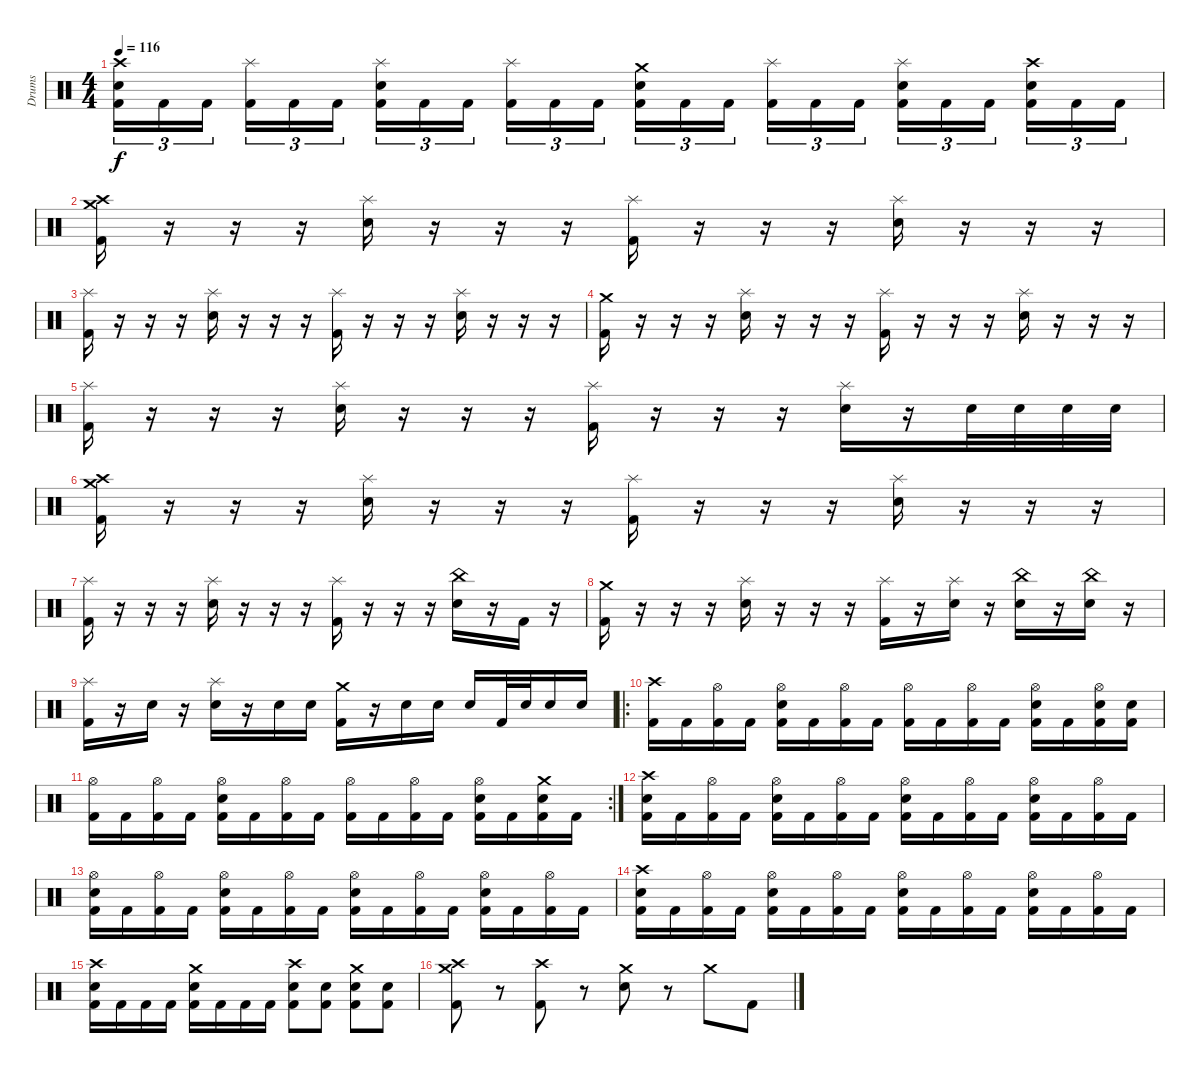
\track ("Drums" "Drums") {instrument percussion}
\staff {score}
\articulation defaults
\ts (4 4)
\tempo 116
\clef neutral
\ks c
("Crash high (hit)" "Snare (hit) 2" "Kick (hit) 2").16{tu (3 2) dy f} "Kick (hit) 2".16{tu (3 2)} "Kick (hit) 2".16{tu (3 2)} ("Splash (hit)" "Kick (hit) 2").16{tu (3 2)} "Kick (hit) 2".16{tu (3 2)} "Kick (hit) 2".16{tu (3 2)} ("Splash (hit)" "Snare (hit) 2" "Kick (hit) 2").16{tu (3 2)} "Kick (hit) 2".16{tu (3 2)} "Kick (hit) 2".16{tu (3 2)} ("Splash (hit)" "Kick (hit) 2").16{tu (3 2)} "Kick (hit) 2".16{tu (3 2)} "Kick (hit) 2".16{tu (3 2)} ("Crash medium (hit)" "Snare (hit) 2" "Kick (hit) 2").16{tu (3 2)} "Kick (hit) 2".16{tu (3 2)} "Kick (hit) 2".16{tu (3 2)} ("Splash (hit)" "Kick (hit) 2").16{tu (3 2)} "Kick (hit) 2".16{tu (3 2)} "Kick (hit) 2".16{tu (3 2)} ("Splash (hit)" "Snare (hit) 2" "Kick (hit) 2").16{tu (3 2)} "Kick (hit) 2".16{tu (3 2)} "Kick (hit) 2".16{tu (3 2)} ("Crash high (hit)" "Snare (hit) 2" "Kick (hit) 2").16{tu (3 2)} "Kick (hit) 2".16{tu (3 2)} "Kick (hit) 2".16{tu (3 2)} |
("Crash high (hit)" "Crash medium (hit)" "Kick (hit) 2").16 r.16 r.16 r.16 ("Splash (hit)" "Snare (hit) 2").16 r.16 r.16 r.16 ("Splash (hit)" "Kick (hit) 2").16 r.16 r.16 r.16 ("Splash (hit)" "Snare (hit) 2").16 r.16 r.16 r.16 |
("Splash (hit)" "Kick (hit) 2").16 r.16 r.16 r.16 ("Splash (hit)" "Snare (hit) 2").16 r.16 r.16 r.16 ("Splash (hit)" "Kick (hit) 2").16 r.16 r.16 r.16 ("Splash (hit)" "Snare (hit) 2").16 r.16 r.16 r.16 |
("Crash medium (hit)" "Kick (hit) 2").16 r.16 r.16 r.16 ("Splash (hit)" "Snare (hit) 2").16 r.16 r.16 r.16 ("Splash (hit)" "Kick (hit) 2").16 r.16 r.16 r.16 ("Splash (hit)" "Snare (hit) 2").16 r.16 r.16 r.16 |
("Splash (hit)" "Kick (hit) 2").16 r.16 r.16 r.16 ("Splash (hit)" "Snare (hit) 2").16 r.16 r.16 r.16 ("Splash (hit)" "Kick (hit) 2").16 r.16 r.16 r.16 ("Splash (hit)" "Snare (hit) 2").16 r.16 "Snare (hit) 2".32 "Snare (hit) 2".32 "Snare (hit) 2".32 "Snare (hit) 2".32 |
("Crash high (hit)" "Crash medium (hit)" "Kick (hit) 2").16 r.16 r.16 r.16 ("Splash (hit)" "Snare (hit) 2").16 r.16 r.16 r.16 ("Splash (hit)" "Kick (hit) 2").16 r.16 r.16 r.16 ("Splash (hit)" "Snare (hit) 2").16 r.16 r.16 r.16 |
("Splash (hit)" "Kick (hit) 2").16 r.16 r.16 r.16 ("Splash (hit)" "Snare (hit) 2").16 r.16 r.16 r.16 ("Splash (hit)" "Kick (hit) 2").16 r.16 r.16 r.16 ("China (hit)" "Snare (hit) 2").16 r.16 "Kick (hit) 2".16 r.16 |
("Crash medium (hit)" "Kick (hit) 2").16 r.16 r.16 r.16 ("Splash (hit)" "Snare (hit) 2").16 r.16 r.16 r.16 ("Splash (hit)" "Kick (hit) 2").16 r.16 ("Splash (hit)" "Snare (hit) 2").16 r.16 ("China (hit)" "Snare (hit) 2").16 r.16 ("China (hit)" "Snare (hit) 2").16 r.16 |
("Splash (hit)" "Kick (hit) 2").16 r.16 "Snare (hit) 2".16 r.16 ("Splash (hit)" "Snare (hit) 2").16 r.16 "Snare (hit) 2".16 "Snare (hit) 2".16 ("Crash medium (hit)" "Kick (hit) 2").16 r.16 "Snare (hit) 2".16 "Snare (hit) 2".16 "Snare (hit) 2".16 "Kick (hit) 2".32 "Snare (hit) 2".32 "Snare (hit) 2".16 "Snare (hit) 2".16 |
\ro
("Crash high (hit)" "Kick (hit) 2").16 "Kick (hit) 2".16 ("Hi-Hat (open)" "Kick (hit) 2").16 "Kick (hit) 2".16 ("Hi-Hat (open)" "Snare (hit) 2" "Kick (hit) 2").16 "Kick (hit) 2".16 ("Hi-Hat (open)" "Kick (hit) 2").16 "Kick (hit) 2".16 ("Hi-Hat (open)" "Kick (hit) 2").16 "Kick (hit) 2".16 ("Hi-Hat (open)" "Kick (hit) 2").16 "Kick (hit) 2".16 ("Hi-Hat (open)" "Snare (hit) 2" "Kick (hit) 2").16 "Kick (hit) 2".16 ("Hi-Hat (open)" "Snare (hit) 2" "Kick (hit) 2").16 ("Snare (hit) 2" "Kick (hit) 2").16 |
\rc 2
("Hi-Hat (open)" "Kick (hit) 2").16 "Kick (hit) 2".16 ("Hi-Hat (open)" "Kick (hit) 2").16 "Kick (hit) 2".16 ("Hi-Hat (open)" "Snare (hit) 2" "Kick (hit) 2").16 "Kick (hit) 2".16 ("Hi-Hat (open)" "Kick (hit) 2").16 "Kick (hit) 2".16 ("Hi-Hat (open)" "Kick (hit) 2").16 "Kick (hit) 2".16 ("Hi-Hat (open)" "Kick (hit) 2").16 "Kick (hit) 2".16 ("Hi-Hat (open)" "Snare (hit) 2" "Kick (hit) 2").16 "Kick (hit) 2".16 ("Crash medium (hit)" "Snare (hit) 2" "Kick (hit) 2").16 "Kick (hit) 2".16 |
("Crash high (hit)" "Snare (hit) 2" "Kick (hit) 2").16 "Kick (hit) 2".16 ("Hi-Hat (open)" "Kick (hit) 2").16 "Kick (hit) 2".16 ("Hi-Hat (open)" "Snare (hit) 2" "Kick (hit) 2").16 "Kick (hit) 2".16 ("Hi-Hat (open)" "Kick (hit) 2").16 "Kick (hit) 2".16 ("Hi-Hat (open)" "Snare (hit) 2" "Kick (hit) 2").16 "Kick (hit) 2".16 ("Hi-Hat (open)" "Kick (hit) 2").16 "Kick (hit) 2".16 ("Hi-Hat (open)" "Snare (hit) 2" "Kick (hit) 2").16 "Kick (hit) 2".16 ("Hi-Hat (open)" "Kick (hit) 2").16 "Kick (hit) 2".16 |
("Hi-Hat (open)" "Snare (hit) 2" "Kick (hit) 2").16 "Kick (hit) 2".16 ("Hi-Hat (open)" "Kick (hit) 2").16 "Kick (hit) 2".16 ("Hi-Hat (open)" "Snare (hit) 2" "Kick (hit) 2").16 "Kick (hit) 2".16 ("Hi-Hat (open)" "Kick (hit) 2").16 "Kick (hit) 2".16 ("Hi-Hat (open)" "Snare (hit) 2" "Kick (hit) 2").16 "Kick (hit) 2".16 ("Hi-Hat (open)" "Kick (hit) 2").16 "Kick (hit) 2".16 ("Hi-Hat (open)" "Snare (hit) 2" "Kick (hit) 2").16 "Kick (hit) 2".16 ("Hi-Hat (open)" "Kick (hit) 2").16 "Kick (hit) 2".16 |
("Crash high (hit)" "Snare (hit) 2" "Kick (hit) 2").16 "Kick (hit) 2".16 ("Hi-Hat (open)" "Kick (hit) 2").16 "Kick (hit) 2".16 ("Hi-Hat (open)" "Snare (hit) 2" "Kick (hit) 2").16 "Kick (hit) 2".16 ("Hi-Hat (open)" "Kick (hit) 2").16 "Kick (hit) 2".16 ("Hi-Hat (open)" "Snare (hit) 2" "Kick (hit) 2").16 "Kick (hit) 2".16 ("Hi-Hat (open)" "Kick (hit) 2").16 "Kick (hit) 2".16 ("Hi-Hat (open)" "Snare (hit) 2" "Kick (hit) 2").16 "Kick (hit) 2".16 ("Hi-Hat (open)" "Kick (hit) 2").16 "Kick (hit) 2".16 |
("Crash high (hit)" "Snare (hit) 2" "Kick (hit) 2").16 "Kick (hit) 2".16 "Kick (hit) 2".16 "Kick (hit) 2".16 ("Crash medium (hit)" "Snare (hit) 2" "Kick (hit) 2").16 "Kick (hit) 2".16 "Kick (hit) 2".16 "Kick (hit) 2".16 ("Crash high (hit)" "Snare (hit) 2" "Kick (hit) 2").8 ("Snare (hit) 2" "Kick (hit) 2").8 ("Crash medium (hit)" "Snare (hit) 2" "Kick (hit) 2").8 ("Snare (hit) 2" "Kick (hit) 2").8 |
("Crash high (hit)" "Crash medium (hit)" "Kick (hit) 2").8 r.8 ("Crash high (hit)" "Kick (hit) 2").8 r.8 ("Crash medium (hit)" "Snare (hit) 2").8 r.8 "Crash medium (hit)".8 "Kick (hit) 2".8
